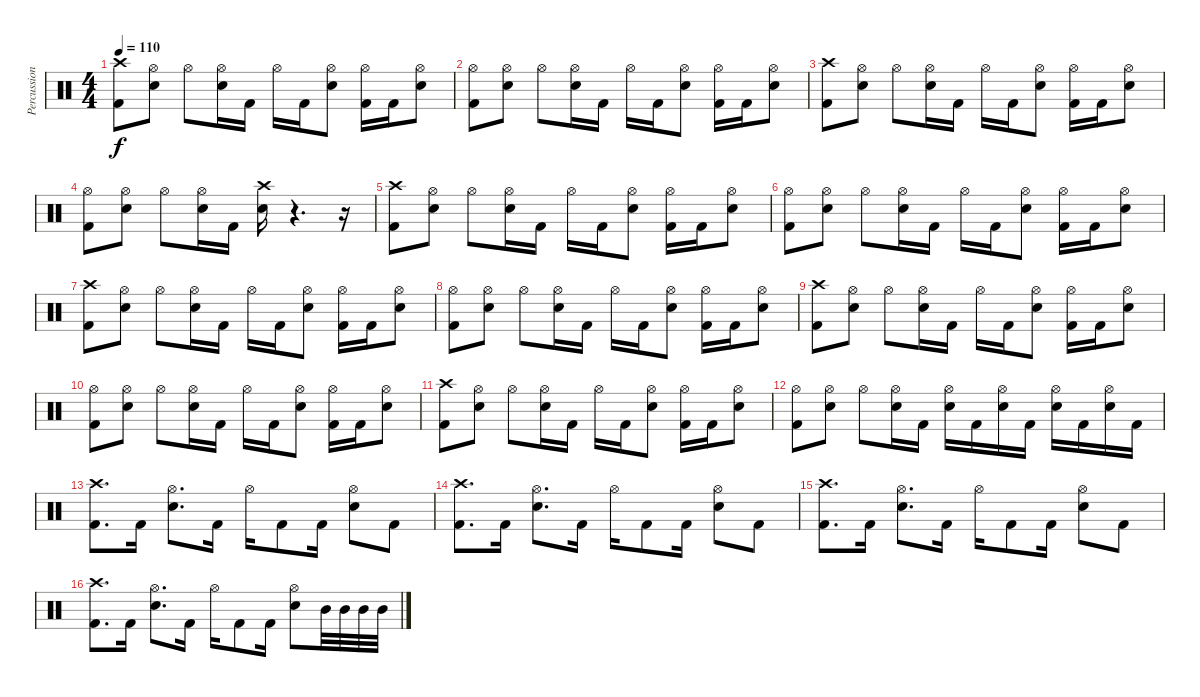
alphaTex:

\track ("Percussioni" "Percussion") {instrument percussion}
\staff {score}
\articulation defaults
\ts (4 4)
\tempo 110
\clef neutral
\ks c
("Crash high (hit)" "Kick (hit) 2").8{dy f} ("Hi-Hat (open)" "Snare (hit) 2").8 "Hi-Hat (open)".8 ("Hi-Hat (open)" "Snare (hit) 2").16 "Kick (hit) 2".16 "Hi-Hat (open)".16 "Kick (hit) 2".16 ("Hi-Hat (open)" "Snare (hit) 2").8 ("Hi-Hat (open)" "Kick (hit) 2").16 "Kick (hit) 2".16 ("Hi-Hat (open)" "Snare (hit) 2").8 |
("Hi-Hat (open)" "Kick (hit) 2").8 ("Hi-Hat (open)" "Snare (hit) 2").8 "Hi-Hat (open)".8 ("Hi-Hat (open)" "Snare (hit) 2").16 "Kick (hit) 2".16 "Hi-Hat (open)".16 "Kick (hit) 2".16 ("Hi-Hat (open)" "Snare (hit) 2").8 ("Hi-Hat (open)" "Kick (hit) 2").16 "Kick (hit) 2".16 ("Hi-Hat (open)" "Snare (hit) 2").8 |
("Crash high (hit)" "Kick (hit) 2").8 ("Hi-Hat (open)" "Snare (hit) 2").8 "Hi-Hat (open)".8 ("Hi-Hat (open)" "Snare (hit) 2").16 "Kick (hit) 2".16 "Hi-Hat (open)".16 "Kick (hit) 2".16 ("Hi-Hat (open)" "Snare (hit) 2").8 ("Hi-Hat (open)" "Kick (hit) 2").16 "Kick (hit) 2".16 ("Hi-Hat (open)" "Snare (hit) 2").8 |
("Hi-Hat (open)" "Kick (hit) 2").8 ("Hi-Hat (open)" "Snare (hit) 2").8 "Hi-Hat (open)".8 ("Hi-Hat (open)" "Snare (hit) 2").16 "Kick (hit) 2".16 ("Crash high (hit)" "Snare (hit) 2").16 r.4{d} r.16 |
("Crash high (hit)" "Kick (hit) 2").8 ("Hi-Hat (open)" "Snare (hit) 2").8 "Hi-Hat (open)".8 ("Hi-Hat (open)" "Snare (hit) 2").16 "Kick (hit) 2".16 "Hi-Hat (open)".16 "Kick (hit) 2".16 ("Hi-Hat (open)" "Snare (hit) 2").8 ("Hi-Hat (open)" "Kick (hit) 2").16 "Kick (hit) 2".16 ("Hi-Hat (open)" "Snare (hit) 2").8 |
("Hi-Hat (open)" "Kick (hit) 2").8 ("Hi-Hat (open)" "Snare (hit) 2").8 "Hi-Hat (open)".8 ("Hi-Hat (open)" "Snare (hit) 2").16 "Kick (hit) 2".16 "Hi-Hat (open)".16 "Kick (hit) 2".16 ("Hi-Hat (open)" "Snare (hit) 2").8 ("Hi-Hat (open)" "Kick (hit) 2").16 "Kick (hit) 2".16 ("Hi-Hat (open)" "Snare (hit) 2").8 |
("Crash high (hit)" "Kick (hit) 2").8 ("Hi-Hat (open)" "Snare (hit) 2").8 "Hi-Hat (open)".8 ("Hi-Hat (open)" "Snare (hit) 2").16 "Kick (hit) 2".16 "Hi-Hat (open)".16 "Kick (hit) 2".16 ("Hi-Hat (open)" "Snare (hit) 2").8 ("Hi-Hat (open)" "Kick (hit) 2").16 "Kick (hit) 2".16 ("Hi-Hat (open)" "Snare (hit) 2").8 |
("Hi-Hat (open)" "Kick (hit) 2").8 ("Hi-Hat (open)" "Snare (hit) 2").8 "Hi-Hat (open)".8 ("Hi-Hat (open)" "Snare (hit) 2").16 "Kick (hit) 2".16 "Hi-Hat (open)".16 "Kick (hit) 2".16 ("Hi-Hat (open)" "Snare (hit) 2").8 ("Hi-Hat (open)" "Kick (hit) 2").16 "Kick (hit) 2".16 ("Hi-Hat (open)" "Snare (hit) 2").8 |
("Crash high (hit)" "Kick (hit) 2").8 ("Hi-Hat (open)" "Snare (hit) 2").8 "Hi-Hat (open)".8 ("Hi-Hat (open)" "Snare (hit) 2").16 "Kick (hit) 2".16 "Hi-Hat (open)".16 "Kick (hit) 2".16 ("Hi-Hat (open)" "Snare (hit) 2").8 ("Hi-Hat (open)" "Kick (hit) 2").16 "Kick (hit) 2".16 ("Hi-Hat (open)" "Snare (hit) 2").8 |
("Hi-Hat (open)" "Kick (hit) 2").8 ("Hi-Hat (open)" "Snare (hit) 2").8 "Hi-Hat (open)".8 ("Hi-Hat (open)" "Snare (hit) 2").16 "Kick (hit) 2".16 "Hi-Hat (open)".16 "Kick (hit) 2".16 ("Hi-Hat (open)" "Snare (hit) 2").8 ("Hi-Hat (open)" "Kick (hit) 2").16 "Kick (hit) 2".16 ("Hi-Hat (open)" "Snare (hit) 2").8 |
("Crash high (hit)" "Kick (hit) 2").8 ("Hi-Hat (open)" "Snare (hit) 2").8 "Hi-Hat (open)".8 ("Hi-Hat (open)" "Snare (hit) 2").16 "Kick (hit) 2".16 "Hi-Hat (open)".16 "Kick (hit) 2".16 ("Hi-Hat (open)" "Snare (hit) 2").8 ("Hi-Hat (open)" "Kick (hit) 2").16 "Kick (hit) 2".16 ("Hi-Hat (open)" "Snare (hit) 2").8 |
("Hi-Hat (open)" "Kick (hit) 2").8 ("Hi-Hat (open)" "Snare (hit) 2").8 "Hi-Hat (open)".8 ("Hi-Hat (open)" "Snare (hit) 2").16 "Kick (hit) 2".16 ("Hi-Hat (open)" "Snare (hit) 2").16 "Kick (hit) 2".16 ("Hi-Hat (open)" "Snare (hit) 2").16 "Kick (hit) 2".16 ("Hi-Hat (open)" "Snare (hit) 2").16 "Kick (hit) 2".16 ("Hi-Hat (open)" "Snare (hit) 2").16 "Kick (hit) 2".16 |
("Crash high (hit)" "Kick (hit) 2").8{d} "Kick (hit) 2".16 ("Hi-Hat (open)" "Snare (hit) 2").8{d} "Kick (hit) 2".16 "Hi-Hat (open)".16 "Kick (hit) 2".8 "Kick (hit) 2".16 ("Hi-Hat (open)" "Snare (hit) 2").8 "Kick (hit) 2".8 |
("Crash high (hit)" "Kick (hit) 2").8{d} "Kick (hit) 2".16 ("Hi-Hat (open)" "Snare (hit) 2").8{d} "Kick (hit) 2".16 "Hi-Hat (open)".16 "Kick (hit) 2".8 "Kick (hit) 2".16 ("Hi-Hat (open)" "Snare (hit) 2").8 "Kick (hit) 2".8 |
("Crash high (hit)" "Kick (hit) 2").8{d} "Kick (hit) 2".16 ("Hi-Hat (open)" "Snare (hit) 2").8{d} "Kick (hit) 2".16 "Hi-Hat (open)".16 "Kick (hit) 2".8 "Kick (hit) 2".16 ("Hi-Hat (open)" "Snare (hit) 2").8 "Kick (hit) 2".8 |
("Crash high (hit)" "Kick (hit) 2").8{d} "Kick (hit) 2".16 ("Hi-Hat (open)" "Snare (hit) 2").8{d} "Kick (hit) 2".16 "Hi-Hat (open)".16 "Kick (hit) 2".8 "Kick (hit) 2".16 ("Hi-Hat (open)" "Snare (hit) 2").8 "Mid Tom (hit)".32 "Mid Tom (hit)".32 "Mid Tom (hit)".32 "Mid Tom (hit)".32
